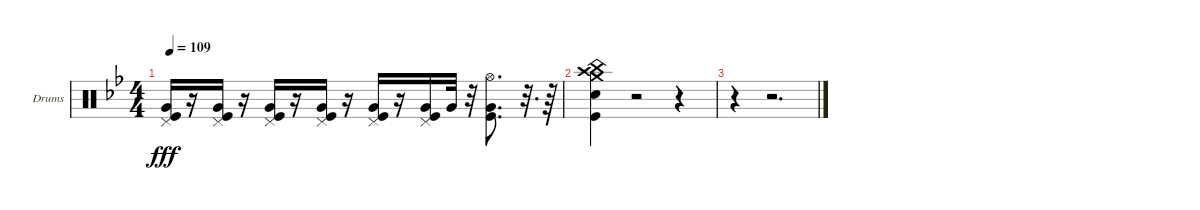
\bracketExtendMode groupsimilarinstruments
\firstSystemTrackNameOrientation horizontal
\otherSystemsTrackNameOrientation horizontal
\track ("Drumkit" "Drums") {instrument percussion}
\staff {score}
\articulation defaults
\ts (4 4)
\tempo 109
\clef neutral
\ks gminor
("Kick (hit)" "Very Low Tom (hit)" "Pedal Hi-Hat (hit)").16{dy fff} r.16 ("Kick (hit)" "Very Low Tom (hit)" "Pedal Hi-Hat (hit)").16 r.16 ("Kick (hit)" "Very Low Tom (hit)" "Pedal Hi-Hat (hit)").16 r.16 ("Kick (hit)" "Very Low Tom (hit)" "Pedal Hi-Hat (hit)").16 r.16 ("Kick (hit)" "Very Low Tom (hit)" "Pedal Hi-Hat (hit)").16 r.16 ("Kick (hit)" "Very Low Tom (hit)" "Pedal Hi-Hat (hit)").16 "Very Low Tom (hit)".32 r.32 ("Kick (hit)" "Very Low Tom (hit)" "Hi-Hat (open)").8{d} r.32{d} r.64 |
("Kick (hit)" "Snare (hit) 2" "Crash medium (hit)" "China (hit)" "Crash high (hit)").4 r.2 r.4 |
r.4 r.2{d}
